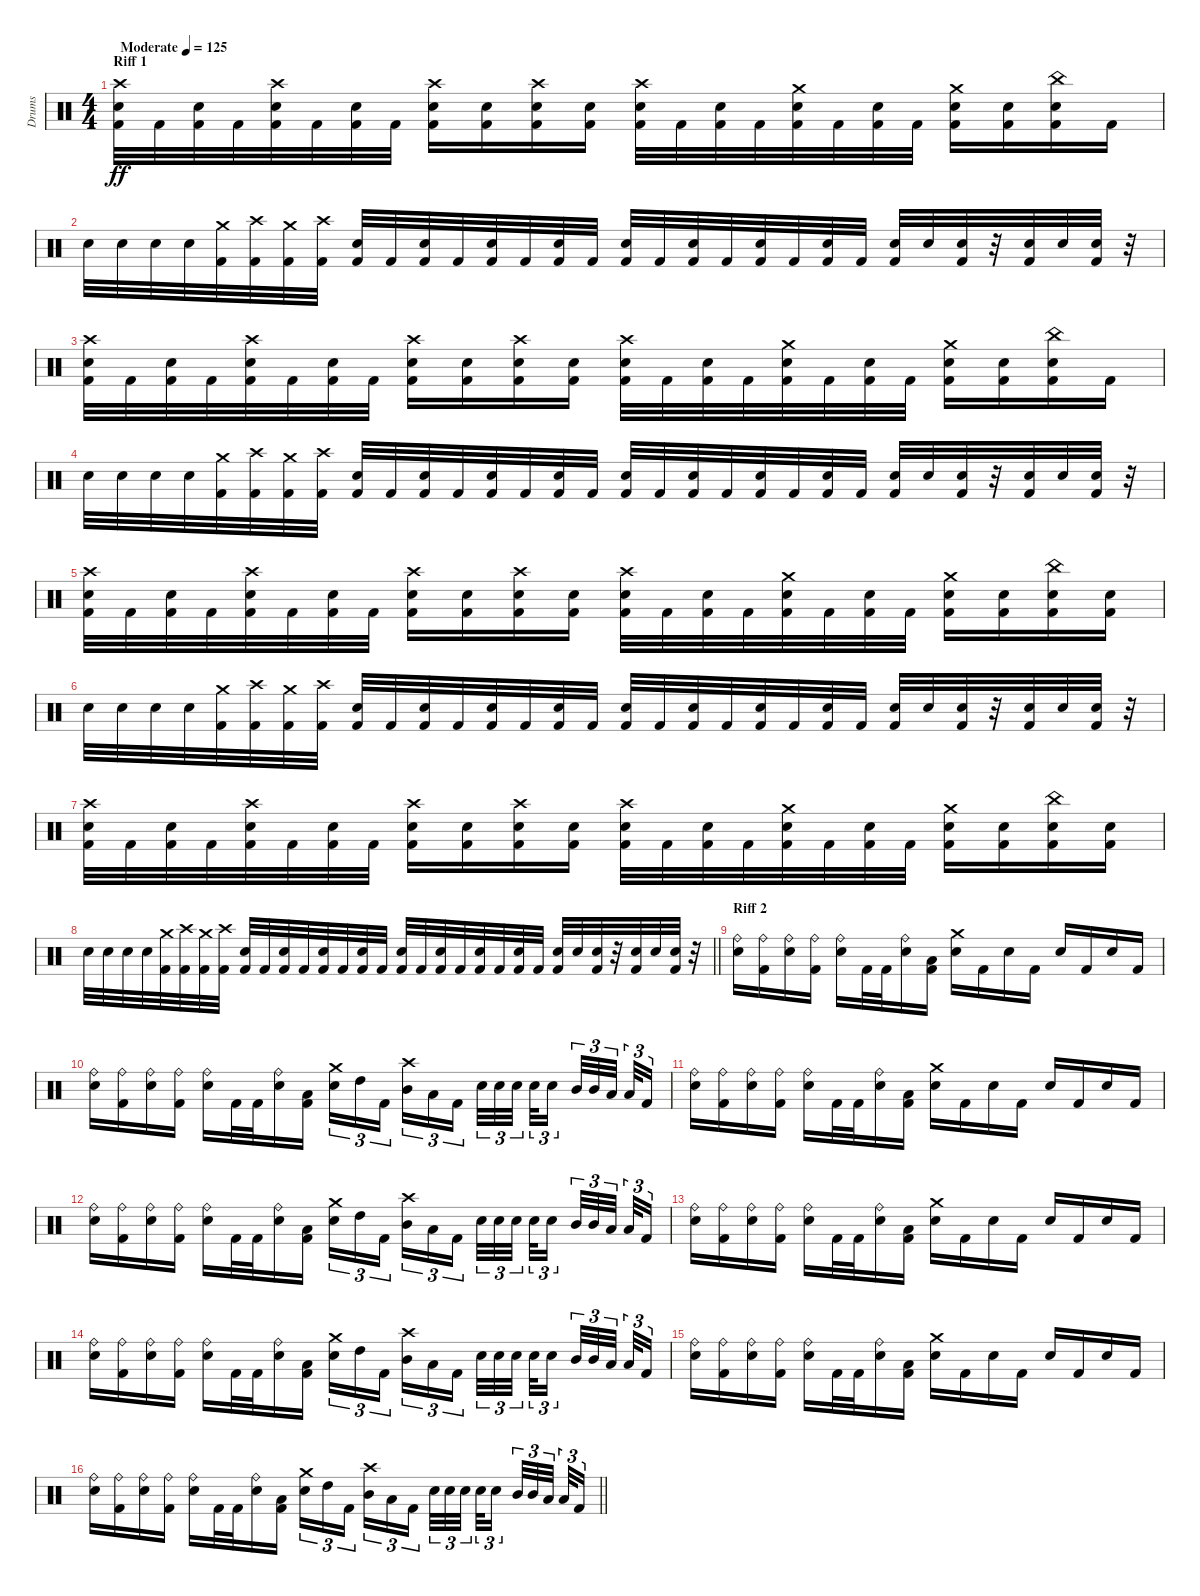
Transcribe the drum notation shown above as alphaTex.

\track ("Drums" "Drums") {instrument percussion}
\staff {score}
\articulation defaults
\ts (4 4)
\section ("" "Riff 1")
\tempo (125 "Moderate")
\clef neutral
\ks c
("Crash high (hit)" "Kick (hit) 2" "Snare (hit) 2").32{dy ff} "Kick (hit) 2".32 ("Kick (hit) 2" "Snare (hit) 2").32 "Kick (hit) 2".32 ("Crash high (hit)" "Kick (hit) 2" "Snare (hit) 2").32 "Kick (hit) 2".32 ("Kick (hit) 2" "Snare (hit) 2").32 "Kick (hit) 2".32 ("Crash high (hit)" "Kick (hit) 2" "Snare (hit) 2").16 ("Kick (hit) 2" "Snare (hit) 2").16 ("Crash high (hit)" "Kick (hit) 2" "Snare (hit) 2").16 ("Kick (hit) 2" "Snare (hit) 2").16 ("Crash high (hit)" "Kick (hit) 2" "Snare (hit) 2").32 "Kick (hit) 2".32 ("Kick (hit) 2" "Snare (hit) 2").32 "Kick (hit) 2".32 ("Crash medium (hit)" "Kick (hit) 2" "Snare (hit) 2").32 "Kick (hit) 2".32 ("Kick (hit) 2" "Snare (hit) 2").32 "Kick (hit) 2".32 ("Crash medium (hit)" "Kick (hit) 2" "Snare (hit) 2").16 ("Kick (hit) 2" "Snare (hit) 2").16 ("China (hit)" "Kick (hit) 2" "Snare (hit) 2").16 "Kick (hit) 2".16 |
"Snare (hit) 2".32 "Snare (hit) 2".32 "Snare (hit) 2".32 "Snare (hit) 2".32 ("Crash medium (hit)" "Kick (hit) 2").32 ("Crash high (hit)" "Kick (hit) 2").32 ("Crash medium (hit)" "Kick (hit) 2").32 ("Crash high (hit)" "Kick (hit) 2").32 ("Kick (hit) 2" "Snare (hit) 2").32 "Kick (hit) 2".32 ("Kick (hit) 2" "Snare (hit) 2").32 "Kick (hit) 2".32 ("Kick (hit) 2" "Snare (hit) 2").32 "Kick (hit) 2".32 ("Kick (hit) 2" "Snare (hit) 2").32 "Kick (hit) 2".32 ("Kick (hit) 2" "Snare (hit) 2").32 "Kick (hit) 2".32 ("Kick (hit) 2" "Snare (hit) 2").32 "Kick (hit) 2".32 ("Kick (hit) 2" "Snare (hit) 2").32 "Kick (hit) 2".32 ("Kick (hit) 2" "Snare (hit) 2").32 "Kick (hit) 2".32 ("Kick (hit) 2" "Snare (hit) 2").32 "Snare (hit) 2".32 ("Kick (hit) 2" "Snare (hit) 2").32 r.32 ("Kick (hit) 2" "Snare (hit) 2").32 "Snare (hit) 2".32 ("Kick (hit) 2" "Snare (hit) 2").32 r.32 |
("Crash high (hit)" "Kick (hit) 2" "Snare (hit) 2").32 "Kick (hit) 2".32 ("Kick (hit) 2" "Snare (hit) 2").32 "Kick (hit) 2".32 ("Crash high (hit)" "Kick (hit) 2" "Snare (hit) 2").32 "Kick (hit) 2".32 ("Kick (hit) 2" "Snare (hit) 2").32 "Kick (hit) 2".32 ("Crash high (hit)" "Kick (hit) 2" "Snare (hit) 2").16 ("Kick (hit) 2" "Snare (hit) 2").16 ("Crash high (hit)" "Kick (hit) 2" "Snare (hit) 2").16 ("Kick (hit) 2" "Snare (hit) 2").16 ("Crash high (hit)" "Kick (hit) 2" "Snare (hit) 2").32 "Kick (hit) 2".32 ("Kick (hit) 2" "Snare (hit) 2").32 "Kick (hit) 2".32 ("Crash medium (hit)" "Kick (hit) 2" "Snare (hit) 2").32 "Kick (hit) 2".32 ("Kick (hit) 2" "Snare (hit) 2").32 "Kick (hit) 2".32 ("Crash medium (hit)" "Kick (hit) 2" "Snare (hit) 2").16 ("Kick (hit) 2" "Snare (hit) 2").16 ("China (hit)" "Kick (hit) 2" "Snare (hit) 2").16 "Kick (hit) 2".16 |
"Snare (hit) 2".32 "Snare (hit) 2".32 "Snare (hit) 2".32 "Snare (hit) 2".32 ("Crash medium (hit)" "Kick (hit) 2").32 ("Crash high (hit)" "Kick (hit) 2").32 ("Crash medium (hit)" "Kick (hit) 2").32 ("Crash high (hit)" "Kick (hit) 2").32 ("Kick (hit) 2" "Snare (hit) 2").32 "Kick (hit) 2".32 ("Kick (hit) 2" "Snare (hit) 2").32 "Kick (hit) 2".32 ("Kick (hit) 2" "Snare (hit) 2").32 "Kick (hit) 2".32 ("Kick (hit) 2" "Snare (hit) 2").32 "Kick (hit) 2".32 ("Kick (hit) 2" "Snare (hit) 2").32 "Kick (hit) 2".32 ("Kick (hit) 2" "Snare (hit) 2").32 "Kick (hit) 2".32 ("Kick (hit) 2" "Snare (hit) 2").32 "Kick (hit) 2".32 ("Kick (hit) 2" "Snare (hit) 2").32 "Kick (hit) 2".32 ("Kick (hit) 2" "Snare (hit) 2").32 "Snare (hit) 2".32 ("Kick (hit) 2" "Snare (hit) 2").32 r.32 ("Kick (hit) 2" "Snare (hit) 2").32 "Snare (hit) 2".32 ("Kick (hit) 2" "Snare (hit) 2").32 r.32 |
("Crash high (hit)" "Kick (hit) 2" "Snare (hit) 2").32 "Kick (hit) 2".32 ("Kick (hit) 2" "Snare (hit) 2").32 "Kick (hit) 2".32 ("Crash high (hit)" "Kick (hit) 2" "Snare (hit) 2").32 "Kick (hit) 2".32 ("Kick (hit) 2" "Snare (hit) 2").32 "Kick (hit) 2".32 ("Crash high (hit)" "Kick (hit) 2" "Snare (hit) 2").16 ("Kick (hit) 2" "Snare (hit) 2").16 ("Crash high (hit)" "Kick (hit) 2" "Snare (hit) 2").16 ("Kick (hit) 2" "Snare (hit) 2").16 ("Crash high (hit)" "Kick (hit) 2" "Snare (hit) 2").32 "Kick (hit) 2".32 ("Kick (hit) 2" "Snare (hit) 2").32 "Kick (hit) 2".32 ("Crash medium (hit)" "Kick (hit) 2" "Snare (hit) 2").32 "Kick (hit) 2".32 ("Kick (hit) 2" "Snare (hit) 2").32 "Kick (hit) 2".32 ("Crash medium (hit)" "Kick (hit) 2" "Snare (hit) 2").16 ("Kick (hit) 2" "Snare (hit) 2").16 ("China (hit)" "Kick (hit) 2" "Snare (hit) 2").16 ("Kick (hit) 2" "Snare (hit) 2").16 |
"Snare (hit) 2".32 "Snare (hit) 2".32 "Snare (hit) 2".32 "Snare (hit) 2".32 ("Crash medium (hit)" "Kick (hit) 2").32 ("Crash high (hit)" "Kick (hit) 2").32 ("Crash medium (hit)" "Kick (hit) 2").32 ("Crash high (hit)" "Kick (hit) 2").32 ("Kick (hit) 2" "Snare (hit) 2").32 "Kick (hit) 2".32 ("Kick (hit) 2" "Snare (hit) 2").32 "Kick (hit) 2".32 ("Kick (hit) 2" "Snare (hit) 2").32 "Kick (hit) 2".32 ("Kick (hit) 2" "Snare (hit) 2").32 "Kick (hit) 2".32 ("Kick (hit) 2" "Snare (hit) 2").32 "Kick (hit) 2".32 ("Kick (hit) 2" "Snare (hit) 2").32 "Kick (hit) 2".32 ("Kick (hit) 2" "Snare (hit) 2").32 "Kick (hit) 2".32 ("Kick (hit) 2" "Snare (hit) 2").32 "Kick (hit) 2".32 ("Kick (hit) 2" "Snare (hit) 2").32 "Snare (hit) 2".32 ("Kick (hit) 2" "Snare (hit) 2").32 r.32 ("Kick (hit) 2" "Snare (hit) 2").32 "Snare (hit) 2".32 ("Kick (hit) 2" "Snare (hit) 2").32 r.32 |
("Crash high (hit)" "Kick (hit) 2" "Snare (hit) 2").32 "Kick (hit) 2".32 ("Kick (hit) 2" "Snare (hit) 2").32 "Kick (hit) 2".32 ("Crash high (hit)" "Kick (hit) 2" "Snare (hit) 2").32 "Kick (hit) 2".32 ("Kick (hit) 2" "Snare (hit) 2").32 "Kick (hit) 2".32 ("Crash high (hit)" "Kick (hit) 2" "Snare (hit) 2").16 ("Kick (hit) 2" "Snare (hit) 2").16 ("Crash high (hit)" "Kick (hit) 2" "Snare (hit) 2").16 ("Kick (hit) 2" "Snare (hit) 2").16 ("Crash high (hit)" "Kick (hit) 2" "Snare (hit) 2").32 "Kick (hit) 2".32 ("Kick (hit) 2" "Snare (hit) 2").32 "Kick (hit) 2".32 ("Crash medium (hit)" "Kick (hit) 2" "Snare (hit) 2").32 "Kick (hit) 2".32 ("Kick (hit) 2" "Snare (hit) 2").32 "Kick (hit) 2".32 ("Crash medium (hit)" "Kick (hit) 2" "Snare (hit) 2").16 ("Kick (hit) 2" "Snare (hit) 2").16 ("China (hit)" "Kick (hit) 2" "Snare (hit) 2").16 ("Kick (hit) 2" "Snare (hit) 2").16 |
\barLineRight lightlight "Snare (hit) 2".32 "Snare (hit) 2".32 "Snare (hit) 2".32 "Snare (hit) 2".32
("Crash medium (hit)" "Kick (hit) 2").32 ("Crash high (hit)" "Kick (hit) 2").32 ("Crash medium (hit)" "Kick (hit) 2").32 ("Crash high (hit)" "Kick (hit) 2").32 ("Kick (hit) 2" "Snare (hit) 2").32 "Kick (hit) 2".32 ("Kick (hit) 2" "Snare (hit) 2").32 "Kick (hit) 2".32 ("Kick (hit) 2" "Snare (hit) 2").32 "Kick (hit) 2".32 ("Kick (hit) 2" "Snare (hit) 2").32 "Kick (hit) 2".32 ("Kick (hit) 2" "Snare (hit) 2").32 "Kick (hit) 2".32 ("Kick (hit) 2" "Snare (hit) 2").32 "Kick (hit) 2".32 ("Kick (hit) 2" "Snare (hit) 2").32 "Kick (hit) 2".32 ("Kick (hit) 2" "Snare (hit) 2").32 "Kick (hit) 2".32 ("Kick (hit) 2" "Snare (hit) 2").32 "Snare (hit) 2".32 ("Kick (hit) 2" "Snare (hit) 2").32 r.32 ("Kick (hit) 2" "Snare (hit) 2").32 "Snare (hit) 2".32 ("Kick (hit) 2" "Snare (hit) 2").32 r.32 |
\section ("" "Riff 2")
("Snare (hit) 2" "Ride (bell)").16 ("Kick (hit) 2" "Ride (bell)").16 ("Snare (hit) 2" "Ride (bell)").16 ("Kick (hit) 2" "Ride (bell)").16 ("Snare (hit) 2" "Ride (bell)").16 "Kick (hit) 2".32 "Kick (hit) 2".32 ("Snare (hit) 2" "Ride (bell)").16 ("Kick (hit) 2" "Low Tom (hit)").16 ("Crash medium (hit)" "Snare (hit) 2").16 "Kick (hit) 2".16 "Snare (hit) 2".16 "Kick (hit) 2".16 "Snare (hit) 2".16 "Kick (hit) 2".16 "Snare (hit) 2".16 "Kick (hit) 2".16 |
("Snare (hit) 2" "Ride (bell)").16 ("Kick (hit) 2" "Ride (bell)").16 ("Snare (hit) 2" "Ride (bell)").16 ("Kick (hit) 2" "Ride (bell)").16 ("Snare (hit) 2" "Ride (bell)").16 "Kick (hit) 2".32 "Kick (hit) 2".32 ("Snare (hit) 2" "Ride (bell)").16 ("Kick (hit) 2" "Low Tom (hit)").16 ("Crash medium (hit)" "Snare (hit) 2").16{tu (3 2)} "High Tom (hit)".16{tu (3 2)} "Kick (hit) 2".16{tu (3 2) beam splitsecondary} ("Crash high (hit)" "Mid Tom (hit)").16{tu (3 2)} "Low Tom (hit)".16{tu (3 2)} "Kick (hit) 2".16{tu (3 2)} "Snare (hit) 2".32{tu (3 2)} "Snare (hit) 2".32{tu (3 2)} "Snare (hit) 2".32{tu (3 2) beam splitsecondary} "Snare (hit) 2".32{tu (3 2)} "Snare (hit) 2".16{tu (3 2) beam splitsecondary} "Mid Tom (hit)".32{tu (3 2)} "Mid Tom (hit)".32{tu (3 2)} "Low Tom (hit)".32{tu (3 2) beam splitsecondary} "Low Tom (hit)".32{tu (3 2)} "Kick (hit) 2".16{tu (3 2)} |
("Snare (hit) 2" "Ride (bell)").16 ("Kick (hit) 2" "Ride (bell)").16 ("Snare (hit) 2" "Ride (bell)").16 ("Kick (hit) 2" "Ride (bell)").16 ("Snare (hit) 2" "Ride (bell)").16 "Kick (hit) 2".32 "Kick (hit) 2".32 ("Snare (hit) 2" "Ride (bell)").16 ("Kick (hit) 2" "Low Tom (hit)").16 ("Crash medium (hit)" "Snare (hit) 2").16 "Kick (hit) 2".16 "Snare (hit) 2".16 "Kick (hit) 2".16 "Snare (hit) 2".16 "Kick (hit) 2".16 "Snare (hit) 2".16 "Kick (hit) 2".16 |
("Snare (hit) 2" "Ride (bell)").16 ("Kick (hit) 2" "Ride (bell)").16 ("Snare (hit) 2" "Ride (bell)").16 ("Kick (hit) 2" "Ride (bell)").16 ("Snare (hit) 2" "Ride (bell)").16 "Kick (hit) 2".32 "Kick (hit) 2".32 ("Snare (hit) 2" "Ride (bell)").16 ("Kick (hit) 2" "Low Tom (hit)").16 ("Crash medium (hit)" "Snare (hit) 2").16{tu (3 2)} "High Tom (hit)".16{tu (3 2)} "Kick (hit) 2".16{tu (3 2) beam splitsecondary} ("Crash high (hit)" "Mid Tom (hit)").16{tu (3 2)} "Low Tom (hit)".16{tu (3 2)} "Kick (hit) 2".16{tu (3 2)} "Snare (hit) 2".32{tu (3 2)} "Snare (hit) 2".32{tu (3 2)} "Snare (hit) 2".32{tu (3 2) beam splitsecondary} "Snare (hit) 2".32{tu (3 2)} "Snare (hit) 2".16{tu (3 2) beam splitsecondary} "Mid Tom (hit)".32{tu (3 2)} "Mid Tom (hit)".32{tu (3 2)} "Low Tom (hit)".32{tu (3 2) beam splitsecondary} "Low Tom (hit)".32{tu (3 2)} "Kick (hit) 2".16{tu (3 2)} |
("Snare (hit) 2" "Ride (bell)").16 ("Kick (hit) 2" "Ride (bell)").16 ("Snare (hit) 2" "Ride (bell)").16 ("Kick (hit) 2" "Ride (bell)").16 ("Snare (hit) 2" "Ride (bell)").16 "Kick (hit) 2".32 "Kick (hit) 2".32 ("Snare (hit) 2" "Ride (bell)").16 ("Kick (hit) 2" "Low Tom (hit)").16 ("Crash medium (hit)" "Snare (hit) 2").16 "Kick (hit) 2".16 "Snare (hit) 2".16 "Kick (hit) 2".16 "Snare (hit) 2".16 "Kick (hit) 2".16 "Snare (hit) 2".16 "Kick (hit) 2".16 |
("Snare (hit) 2" "Ride (bell)").16 ("Kick (hit) 2" "Ride (bell)").16 ("Snare (hit) 2" "Ride (bell)").16 ("Kick (hit) 2" "Ride (bell)").16 ("Snare (hit) 2" "Ride (bell)").16 "Kick (hit) 2".32 "Kick (hit) 2".32 ("Snare (hit) 2" "Ride (bell)").16 ("Kick (hit) 2" "Low Tom (hit)").16 ("Crash medium (hit)" "Snare (hit) 2").16{tu (3 2)} "High Tom (hit)".16{tu (3 2)} "Kick (hit) 2".16{tu (3 2) beam splitsecondary} ("Crash high (hit)" "Mid Tom (hit)").16{tu (3 2)} "Low Tom (hit)".16{tu (3 2)} "Kick (hit) 2".16{tu (3 2)} "Snare (hit) 2".32{tu (3 2)} "Snare (hit) 2".32{tu (3 2)} "Snare (hit) 2".32{tu (3 2) beam splitsecondary} "Snare (hit) 2".32{tu (3 2)} "Snare (hit) 2".16{tu (3 2) beam splitsecondary} "Mid Tom (hit)".32{tu (3 2)} "Mid Tom (hit)".32{tu (3 2)} "Low Tom (hit)".32{tu (3 2) beam splitsecondary} "Low Tom (hit)".32{tu (3 2)} "Kick (hit) 2".16{tu (3 2)} |
("Snare (hit) 2" "Ride (bell)").16 ("Kick (hit) 2" "Ride (bell)").16 ("Snare (hit) 2" "Ride (bell)").16 ("Kick (hit) 2" "Ride (bell)").16 ("Snare (hit) 2" "Ride (bell)").16 "Kick (hit) 2".32 "Kick (hit) 2".32 ("Snare (hit) 2" "Ride (bell)").16 ("Kick (hit) 2" "Low Tom (hit)").16 ("Crash medium (hit)" "Snare (hit) 2").16 "Kick (hit) 2".16 "Snare (hit) 2".16 "Kick (hit) 2".16 "Snare (hit) 2".16 "Kick (hit) 2".16 "Snare (hit) 2".16 "Kick (hit) 2".16 |
\barLineRight lightlight
("Snare (hit) 2" "Ride (bell)").16 ("Kick (hit) 2" "Ride (bell)").16 ("Snare (hit) 2" "Ride (bell)").16 ("Kick (hit) 2" "Ride (bell)").16 ("Snare (hit) 2" "Ride (bell)").16 "Kick (hit) 2".32 "Kick (hit) 2".32 ("Snare (hit) 2" "Ride (bell)").16 ("Kick (hit) 2" "Low Tom (hit)").16 ("Crash medium (hit)" "Snare (hit) 2").16{tu (3 2)} "High Tom (hit)".16{tu (3 2)} "Kick (hit) 2".16{tu (3 2) beam splitsecondary} ("Crash high (hit)" "Mid Tom (hit)").16{tu (3 2)} "Low Tom (hit)".16{tu (3 2)} "Kick (hit) 2".16{tu (3 2)} "Snare (hit) 2".32{tu (3 2)} "Snare (hit) 2".32{tu (3 2)} "Snare (hit) 2".32{tu (3 2) beam splitsecondary} "Snare (hit) 2".32{tu (3 2)} "Snare (hit) 2".16{tu (3 2) beam splitsecondary} "Mid Tom (hit)".32{tu (3 2)} "Mid Tom (hit)".32{tu (3 2)} "Low Tom (hit)".32{tu (3 2) beam splitsecondary} "Low Tom (hit)".32{tu (3 2)} "Kick (hit) 2".16{tu (3 2)}
